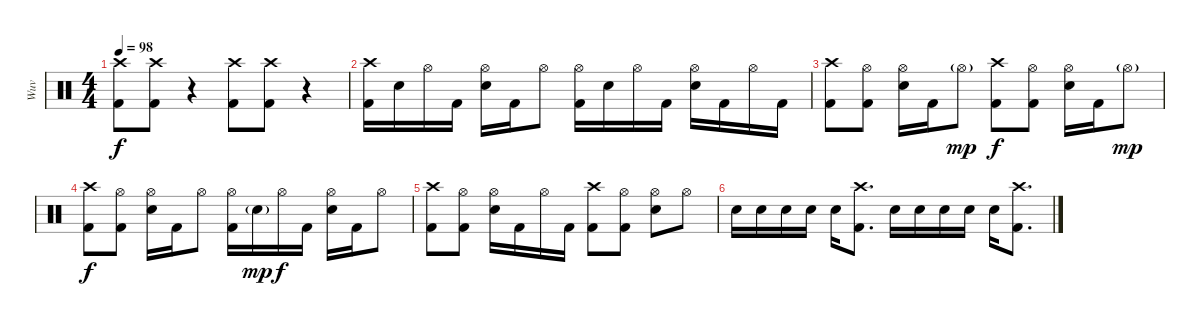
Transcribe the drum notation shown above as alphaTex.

\track ("Wuv" "Wuv") {instrument percussion}
\staff {score}
\articulation defaults
\ts (4 4)
\tempo 98
\clef neutral
\ks c
("Crash high (hit)" "Kick (hit) 2").8{dy f} ("Crash high (hit)" "Kick (hit) 2").8 r.4{volume 0} ("Crash high (hit)" "Kick (hit) 2").8{volume 16} ("Crash high (hit)" "Kick (hit) 2").8 r.4{volume 0} |
("Crash high (hit)" "Kick (hit) 2").16{volume 16} "Electric Snare (hit)".16 "Hi-Hat (open)".16 "Kick (hit) 2".16 ("Hi-Hat (open)" "Electric Snare (hit)").16 "Kick (hit) 2".16 "Hi-Hat (open)".8 ("Hi-Hat (open)" "Kick (hit) 2").16 "Electric Snare (hit)".16 "Hi-Hat (open)".16 "Kick (hit) 2".16 ("Hi-Hat (open)" "Electric Snare (hit)").16 "Kick (hit) 2".16 "Hi-Hat (open)".16 "Kick (hit) 2".16 |
("Crash high (hit)" "Kick (hit) 2").8 ("Hi-Hat (open)" "Kick (hit) 2").8 ("Hi-Hat (open)" "Electric Snare (hit)").16 "Kick (hit) 2".16 "Hi-Hat (open)"{g}.8{dy mp} ("Crash high (hit)" "Kick (hit) 2").8{dy f} ("Hi-Hat (open)" "Kick (hit) 2").8 ("Hi-Hat (open)" "Electric Snare (hit)").16 "Kick (hit) 2".16 "Hi-Hat (open)"{g}.8{dy mp} |
("Crash high (hit)" "Kick (hit) 2").8{dy f} ("Hi-Hat (open)" "Kick (hit) 2").8 ("Hi-Hat (open)" "Electric Snare (hit)").16 "Kick (hit) 2".16 "Hi-Hat (open)".8 ("Hi-Hat (open)" "Kick (hit) 2").16 "Electric Snare (hit)"{g}.16{dy mp} "Hi-Hat (open)".16{dy f} "Kick (hit) 2".16 ("Hi-Hat (open)" "Electric Snare (hit)").16 "Kick (hit) 2".16 "Hi-Hat (open)".8 |
("Crash high (hit)" "Kick (hit) 2").8 ("Hi-Hat (open)" "Kick (hit) 2").8 ("Hi-Hat (open)" "Electric Snare (hit)").16 "Kick (hit) 2".16 "Hi-Hat (open)".16 "Kick (hit) 2".16 ("Crash high (hit)" "Kick (hit) 2").8 ("Hi-Hat (open)" "Kick (hit) 2").8 ("Hi-Hat (open)" "Electric Snare (hit)").8 "Hi-Hat (open)".8 |
"Electric Snare (hit)".16 "Electric Snare (hit)".16 "Electric Snare (hit)".16 "Electric Snare (hit)".16 "Electric Snare (hit)".16 ("Crash high (hit)" "Kick (hit) 2").8{d} "Electric Snare (hit)".16 "Electric Snare (hit)".16 "Electric Snare (hit)".16 "Electric Snare (hit)".16 "Electric Snare (hit)".16 ("Crash high (hit)" "Kick (hit) 2").8{d}
